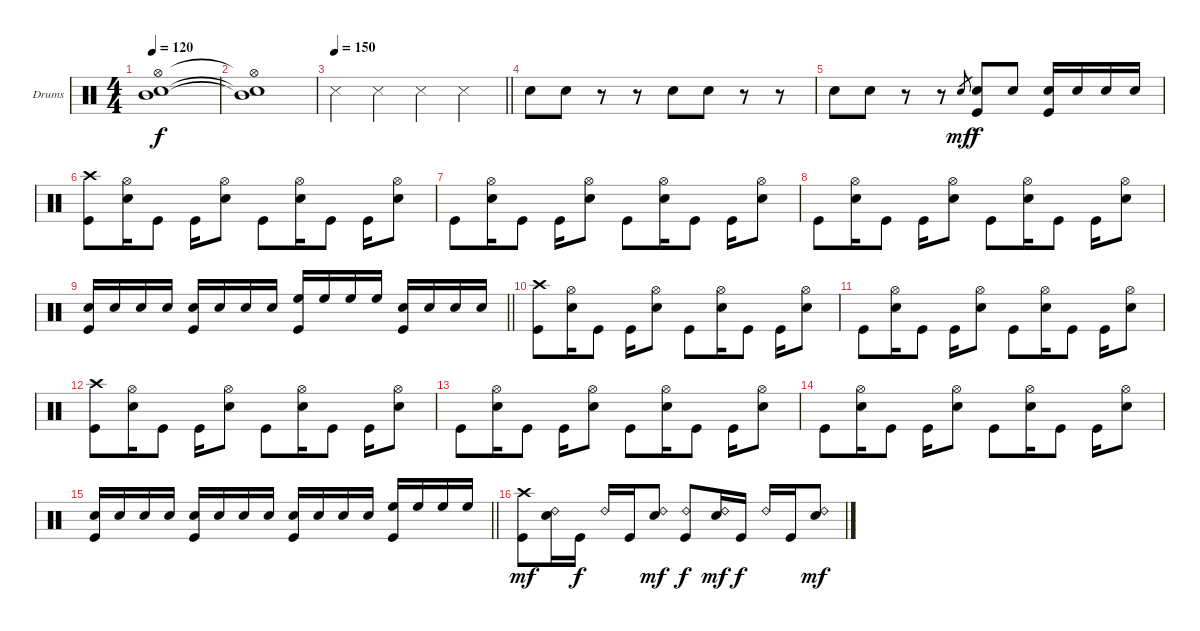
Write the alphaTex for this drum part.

\bracketExtendMode nobrackets
\firstSystemTrackNameOrientation horizontal
\otherSystemsTrackNameOrientation horizontal
\track ("Drumkit" "Drums") {instrument percussion}
\staff {score}
\articulation defaults
\ts (4 4)
\tempo 120
\clef neutral
\ks c
("Hi-Hat (open)" "Mid Tom (hit)" "Snare (hit) 2").1{dy f} |
("Hi-Hat (open)"{t} "Mid Tom (hit)"{t} "Snare (hit) 2"{t}).1 |
\tempo 150
\barLineRight lightlight "Snare (side stick) 3".4 "Snare (side stick) 3".4 "Snare (side stick) 3".4 "Snare (side stick) 3".4
|
"Snare (hit) 2".8 "Snare (hit) 2".8 r.8 r.8 "Snare (hit) 2".8 "Snare (hit) 2".8 r.8 r.8 |
"Snare (hit) 2".8 "Snare (hit) 2".8 r.8 r.8 "Snare (hit) 2".8{gr dy mf} ("Snare (hit) 2" "Kick (hit)").8{dy f} "Snare (hit) 2".8 ("Snare (hit) 2" "Kick (hit)").16 "Snare (hit) 2".16 "Snare (hit) 2".16 "Snare (hit) 2".16 |
("Crash high (hit)" "Kick (hit)").8 ("Hi-Hat (open)" "Snare (hit) 2").16 "Kick (hit)".8 "Kick (hit)".16 ("Hi-Hat (open)" "Snare (hit) 2").8 "Kick (hit)".8 ("Hi-Hat (open)" "Snare (hit) 2").16 "Kick (hit)".8 "Kick (hit)".16 ("Hi-Hat (open)" "Snare (hit) 2").8 |
"Kick (hit)".8 ("Hi-Hat (open)" "Snare (hit) 2").16 "Kick (hit)".8 "Kick (hit)".16 ("Hi-Hat (open)" "Snare (hit) 2").8 "Kick (hit)".8 ("Hi-Hat (open)" "Snare (hit) 2").16 "Kick (hit)".8 "Kick (hit)".16 ("Hi-Hat (open)" "Snare (hit) 2").8 |
"Kick (hit)".8 ("Hi-Hat (open)" "Snare (hit) 2").16 "Kick (hit)".8 "Kick (hit)".16 ("Hi-Hat (open)" "Snare (hit) 2").8 "Kick (hit)".8 ("Hi-Hat (open)" "Snare (hit) 2").16 "Kick (hit)".8 "Kick (hit)".16 ("Hi-Hat (open)" "Snare (hit) 2").8 |
\barLineRight lightlight
("Snare (hit) 2" "Kick (hit)").16 "Snare (hit) 2".16 "Snare (hit) 2".16 "Snare (hit) 2".16 ("Snare (hit) 2" "Kick (hit)").16 "Snare (hit) 2".16 "Snare (hit) 2".16 "Snare (hit) 2".16 ("High Floor Tom (hit)" "Kick (hit)").16 "High Floor Tom (hit)".16 "High Floor Tom (hit)".16 "High Floor Tom (hit)".16 ("Snare (hit) 2" "Kick (hit)").16 "Snare (hit) 2".16 "Snare (hit) 2".16 "Snare (hit) 2".16 |
("Crash high (hit)" "Kick (hit)").8 ("Hi-Hat (open)" "Snare (hit) 2").16 "Kick (hit)".8 "Kick (hit)".16 ("Hi-Hat (open)" "Snare (hit) 2").8 "Kick (hit)".8 ("Hi-Hat (open)" "Snare (hit) 2").16 "Kick (hit)".8 "Kick (hit)".16 ("Hi-Hat (open)" "Snare (hit) 2").8 |
"Kick (hit)".8 ("Hi-Hat (open)" "Snare (hit) 2").16 "Kick (hit)".8 "Kick (hit)".16 ("Hi-Hat (open)" "Snare (hit) 2").8 "Kick (hit)".8 ("Hi-Hat (open)" "Snare (hit) 2").16 "Kick (hit)".8 "Kick (hit)".16 ("Hi-Hat (open)" "Snare (hit) 2").8 |
("Crash high (hit)" "Kick (hit)").8 ("Hi-Hat (open)" "Snare (hit) 2").16 "Kick (hit)".8 "Kick (hit)".16 ("Hi-Hat (open)" "Snare (hit) 2").8 "Kick (hit)".8 ("Hi-Hat (open)" "Snare (hit) 2").16 "Kick (hit)".8 "Kick (hit)".16 ("Hi-Hat (open)" "Snare (hit) 2").8 |
"Kick (hit)".8 ("Hi-Hat (open)" "Snare (hit) 2").16 "Kick (hit)".8 "Kick (hit)".16 ("Hi-Hat (open)" "Snare (hit) 2").8 "Kick (hit)".8 ("Hi-Hat (open)" "Snare (hit) 2").16 "Kick (hit)".8 "Kick (hit)".16 ("Hi-Hat (open)" "Snare (hit) 2").8 |
"Kick (hit)".8 ("Hi-Hat (open)" "Snare (hit) 2").16 "Kick (hit)".8 "Kick (hit)".16 ("Hi-Hat (open)" "Snare (hit) 2").8 "Kick (hit)".8 ("Hi-Hat (open)" "Snare (hit) 2").16 "Kick (hit)".8 "Kick (hit)".16 ("Hi-Hat (open)" "Snare (hit) 2").8 |
\barLineRight lightlight
("Snare (hit) 2" "Kick (hit)").16 "Snare (hit) 2".16 "Snare (hit) 2".16 "Snare (hit) 2".16 ("Snare (hit) 2" "Kick (hit)").16 "Snare (hit) 2".16 "Snare (hit) 2".16 "Snare (hit) 2".16 ("Snare (hit) 2" "Kick (hit)").16 "Snare (hit) 2".16 "Snare (hit) 2".16 "Snare (hit) 2".16 ("High Floor Tom (hit)" "Kick (hit)").16 "High Floor Tom (hit)".16 "High Floor Tom (hit)".16 "High Floor Tom (hit)".16 |
("Crash high (hit)" "Kick (hit)").8{dy mf} ("Ride (bell) 2" "Snare (hit) 2").16 "Kick (hit)".16{dy f} "Ride (bell) 2".16 "Kick (hit)".16 ("Ride (bell) 2" "Snare (hit) 2").8{dy mf} ("Ride (bell) 2" "Kick (hit)").8{dy f} ("Ride (bell) 2" "Snare (hit) 2").16{dy mf} "Kick (hit)".16{dy f} "Ride (bell) 2".16 "Kick (hit)".16 ("Ride (bell) 2" "Snare (hit) 2").8{dy mf}
